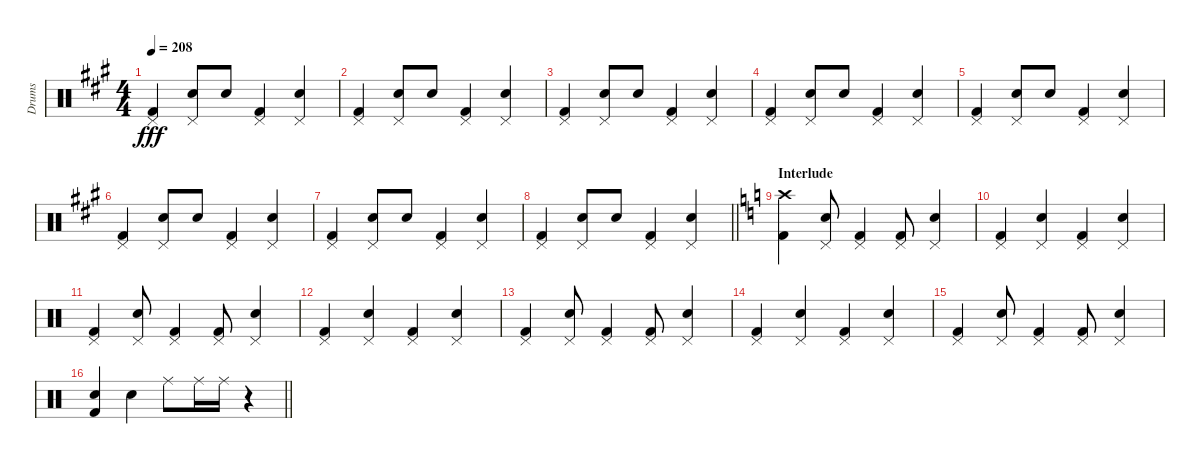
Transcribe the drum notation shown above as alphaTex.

\track ("Drums" "Drums") {instrument percussion}
\staff {score}
\articulation defaults
\ts (4 4)
\tempo 208
\clef neutral
\ks a
("Pedal Hi-Hat (hit)" "Kick (hit) 2").4{dy fff} ("Pedal Hi-Hat (hit)" "Snare (hit) 2").8 "Snare (hit) 2".8 ("Pedal Hi-Hat (hit)" "Kick (hit) 2").4 ("Pedal Hi-Hat (hit)" "Snare (hit) 2").4 |
("Pedal Hi-Hat (hit)" "Kick (hit) 2").4 ("Pedal Hi-Hat (hit)" "Snare (hit) 2").8 "Snare (hit) 2".8 ("Pedal Hi-Hat (hit)" "Kick (hit) 2").4 ("Pedal Hi-Hat (hit)" "Snare (hit) 2").4 |
("Pedal Hi-Hat (hit)" "Kick (hit) 2").4 ("Pedal Hi-Hat (hit)" "Snare (hit) 2").8 "Snare (hit) 2".8 ("Pedal Hi-Hat (hit)" "Kick (hit) 2").4 ("Pedal Hi-Hat (hit)" "Snare (hit) 2").4 |
("Pedal Hi-Hat (hit)" "Kick (hit) 2").4 ("Pedal Hi-Hat (hit)" "Snare (hit) 2").8 "Snare (hit) 2".8 ("Pedal Hi-Hat (hit)" "Kick (hit) 2").4 ("Pedal Hi-Hat (hit)" "Snare (hit) 2").4 |
("Pedal Hi-Hat (hit)" "Kick (hit) 2").4 ("Pedal Hi-Hat (hit)" "Snare (hit) 2").8 "Snare (hit) 2".8 ("Pedal Hi-Hat (hit)" "Kick (hit) 2").4 ("Pedal Hi-Hat (hit)" "Snare (hit) 2").4 |
("Pedal Hi-Hat (hit)" "Kick (hit) 2").4 ("Pedal Hi-Hat (hit)" "Snare (hit) 2").8 "Snare (hit) 2".8 ("Pedal Hi-Hat (hit)" "Kick (hit) 2").4 ("Pedal Hi-Hat (hit)" "Snare (hit) 2").4 |
("Pedal Hi-Hat (hit)" "Kick (hit) 2").4 ("Pedal Hi-Hat (hit)" "Snare (hit) 2").8 "Snare (hit) 2".8 ("Pedal Hi-Hat (hit)" "Kick (hit) 2").4 ("Pedal Hi-Hat (hit)" "Snare (hit) 2").4 |
\barLineRight lightlight
("Pedal Hi-Hat (hit)" "Kick (hit) 2").4 ("Pedal Hi-Hat (hit)" "Snare (hit) 2").8 "Snare (hit) 2".8 ("Pedal Hi-Hat (hit)" "Kick (hit) 2").4 ("Pedal Hi-Hat (hit)" "Snare (hit) 2").4 |
\section ("" "Interlude")
\ks c
("Crash high (hit)" "Kick (hit) 2").4 ("Pedal Hi-Hat (hit)" "Snare (hit) 2").8 ("Pedal Hi-Hat (hit)" "Kick (hit) 2").4 ("Pedal Hi-Hat (hit)" "Kick (hit) 2").8 ("Pedal Hi-Hat (hit)" "Snare (hit) 2").4 |
("Pedal Hi-Hat (hit)" "Kick (hit) 2").4 ("Pedal Hi-Hat (hit)" "Snare (hit) 2").4 ("Pedal Hi-Hat (hit)" "Kick (hit) 2").4 ("Pedal Hi-Hat (hit)" "Snare (hit) 2").4 |
("Pedal Hi-Hat (hit)" "Kick (hit) 2").4 ("Pedal Hi-Hat (hit)" "Snare (hit) 2").8 ("Pedal Hi-Hat (hit)" "Kick (hit) 2").4 ("Pedal Hi-Hat (hit)" "Kick (hit) 2").8 ("Pedal Hi-Hat (hit)" "Snare (hit) 2").4 |
("Pedal Hi-Hat (hit)" "Kick (hit) 2").4 ("Pedal Hi-Hat (hit)" "Snare (hit) 2").4 ("Pedal Hi-Hat (hit)" "Kick (hit) 2").4 ("Pedal Hi-Hat (hit)" "Snare (hit) 2").4 |
("Pedal Hi-Hat (hit)" "Kick (hit) 2").4 ("Pedal Hi-Hat (hit)" "Snare (hit) 2").8 ("Pedal Hi-Hat (hit)" "Kick (hit) 2").4 ("Pedal Hi-Hat (hit)" "Kick (hit) 2").8 ("Pedal Hi-Hat (hit)" "Snare (hit) 2").4 |
("Pedal Hi-Hat (hit)" "Kick (hit) 2").4 ("Pedal Hi-Hat (hit)" "Snare (hit) 2").4 ("Pedal Hi-Hat (hit)" "Kick (hit) 2").4 ("Pedal Hi-Hat (hit)" "Snare (hit) 2").4 |
("Pedal Hi-Hat (hit)" "Kick (hit) 2").4 ("Pedal Hi-Hat (hit)" "Snare (hit) 2").8 ("Pedal Hi-Hat (hit)" "Kick (hit) 2").4 ("Pedal Hi-Hat (hit)" "Kick (hit) 2").8 ("Pedal Hi-Hat (hit)" "Snare (hit) 2").4 |
\barLineRight lightlight
("Snare (hit) 2" "Kick (hit) 2").4 "Snare (hit) 2".4 "Ride (middle)".8 "Ride (middle)".16 "Ride (middle)".16 r.4
